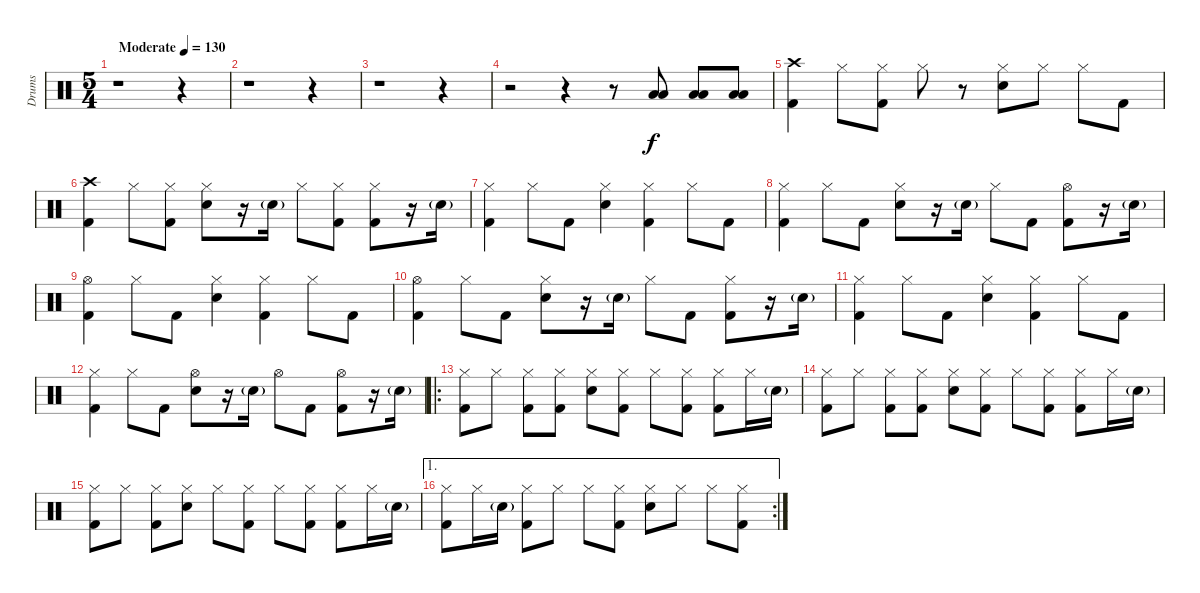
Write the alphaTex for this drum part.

\track ("Drums" "Drums") {instrument percussion}
\staff {score}
\articulation defaults
\ts (5 4)
\tempo (130 "Moderate")
\clef neutral
\ks c
r.1{dy f} r.4 |
r.1 r.4 |
r.1 r.4 |
r.2 r.4 r.8 ("Low Floor Tom (hit)" "Low Tom (hit)").8 ("Low Floor Tom (hit)" "Low Tom (hit)").8 ("Low Floor Tom (hit)" "Low Tom (hit)").8 |
("Crash high (hit)" "Kick (hit) 2").4 "Hi-Hat (closed)".8 ("Hi-Hat (closed)" "Kick (hit) 2").8 "Hi-Hat (closed)".8 r.8 ("Hi-Hat (closed)" "Snare (hit) 2").8 "Hi-Hat (closed)".8 "Hi-Hat (closed)".8 "Kick (hit) 2".8 |
("Crash high (hit)" "Kick (hit) 2").4 "Hi-Hat (closed)".8 ("Hi-Hat (closed)" "Kick (hit) 2").8 ("Hi-Hat (closed)" "Snare (hit) 2").8 r.16 "Snare (hit) 2"{g}.16 "Hi-Hat (closed)".8 ("Hi-Hat (closed)" "Kick (hit) 2").8 ("Hi-Hat (closed)" "Kick (hit) 2").8 r.16 "Snare (hit) 2"{g}.16 |
("Hi-Hat (closed)" "Kick (hit) 2").4 "Hi-Hat (closed)".8 "Kick (hit) 2".8 ("Hi-Hat (closed)" "Snare (hit) 2").4 ("Hi-Hat (closed)" "Kick (hit) 2").4 "Hi-Hat (closed)".8 "Kick (hit) 2".8 |
("Hi-Hat (closed)" "Kick (hit) 2").4 "Hi-Hat (closed)".8 "Kick (hit) 2".8 ("Hi-Hat (closed)" "Snare (hit) 2").8 r.16 "Snare (hit) 2"{g}.16 "Hi-Hat (closed)".8 "Kick (hit) 2".8 ("Hi-Hat (open)" "Kick (hit) 2").8 r.16 "Snare (hit) 2"{g}.16 |
("Hi-Hat (open)" "Kick (hit) 2").4 "Hi-Hat (closed)".8 "Kick (hit) 2".8 ("Hi-Hat (closed)" "Snare (hit) 2").4 ("Hi-Hat (closed)" "Kick (hit) 2").4 "Hi-Hat (closed)".8 "Kick (hit) 2".8 |
("Hi-Hat (open)" "Kick (hit) 2").4 "Hi-Hat (closed)".8 "Kick (hit) 2".8 ("Hi-Hat (closed)" "Snare (hit) 2").8 r.16 "Snare (hit) 2"{g}.16 "Hi-Hat (closed)".8 "Kick (hit) 2".8 ("Hi-Hat (closed)" "Kick (hit) 2").8 r.16 "Snare (hit) 2"{g}.16 |
("Hi-Hat (closed)" "Kick (hit) 2").4 "Hi-Hat (closed)".8 "Kick (hit) 2".8 ("Hi-Hat (closed)" "Snare (hit) 2").4 ("Hi-Hat (closed)" "Kick (hit) 2").4 "Hi-Hat (closed)".8 "Kick (hit) 2".8 |
("Hi-Hat (closed)" "Kick (hit) 2").4 "Hi-Hat (closed)".8 "Kick (hit) 2".8 ("Hi-Hat (open)" "Snare (hit) 2").8 r.16 "Snare (hit) 2"{g}.16 "Hi-Hat (open)".8 "Kick (hit) 2".8 ("Hi-Hat (open)" "Kick (hit) 2").8 r.16 "Snare (hit) 2"{g}.16 |
\ro
("Hi-Hat (closed)" "Kick (hit) 2").8 "Hi-Hat (closed)".8 ("Hi-Hat (closed)" "Kick (hit) 2").8 ("Hi-Hat (closed)" "Kick (hit) 2").8 ("Hi-Hat (closed)" "Snare (hit) 2").8 ("Hi-Hat (closed)" "Kick (hit) 2").8 "Hi-Hat (closed)".8 ("Hi-Hat (closed)" "Kick (hit) 2").8 ("Hi-Hat (closed)" "Kick (hit) 2").8 "Hi-Hat (closed)".16 "Snare (hit) 2"{g}.16 |
("Hi-Hat (closed)" "Kick (hit) 2").8 "Hi-Hat (closed)".8 ("Hi-Hat (closed)" "Kick (hit) 2").8 ("Hi-Hat (closed)" "Kick (hit) 2").8 ("Hi-Hat (closed)" "Snare (hit) 2").8 ("Hi-Hat (closed)" "Kick (hit) 2").8 "Hi-Hat (closed)".8 ("Hi-Hat (closed)" "Kick (hit) 2").8 ("Hi-Hat (closed)" "Kick (hit) 2").8 "Hi-Hat (closed)".16 "Snare (hit) 2"{g}.16 |
("Hi-Hat (closed)" "Kick (hit) 2").8 "Hi-Hat (closed)".8 ("Hi-Hat (closed)" "Kick (hit) 2").8 ("Hi-Hat (closed)" "Snare (hit) 2").8 "Hi-Hat (closed)".8 ("Hi-Hat (closed)" "Kick (hit) 2").8 "Hi-Hat (closed)".8 ("Hi-Hat (closed)" "Kick (hit) 2").8 ("Hi-Hat (closed)" "Kick (hit) 2").8 "Hi-Hat (closed)".16 "Snare (hit) 2"{g}.16 |
\ae 1
\rc 2
("Hi-Hat (closed)" "Kick (hit) 2").8 "Hi-Hat (closed)".16 "Snare (hit) 2"{g}.16 ("Hi-Hat (closed)" "Kick (hit) 2").8 "Hi-Hat (closed)".8 "Hi-Hat (closed)".8 ("Hi-Hat (closed)" "Kick (hit) 2").8 ("Hi-Hat (closed)" "Snare (hit) 2").8 "Hi-Hat (closed)".8 "Hi-Hat (closed)".8 ("Hi-Hat (closed)" "Kick (hit) 2").8
